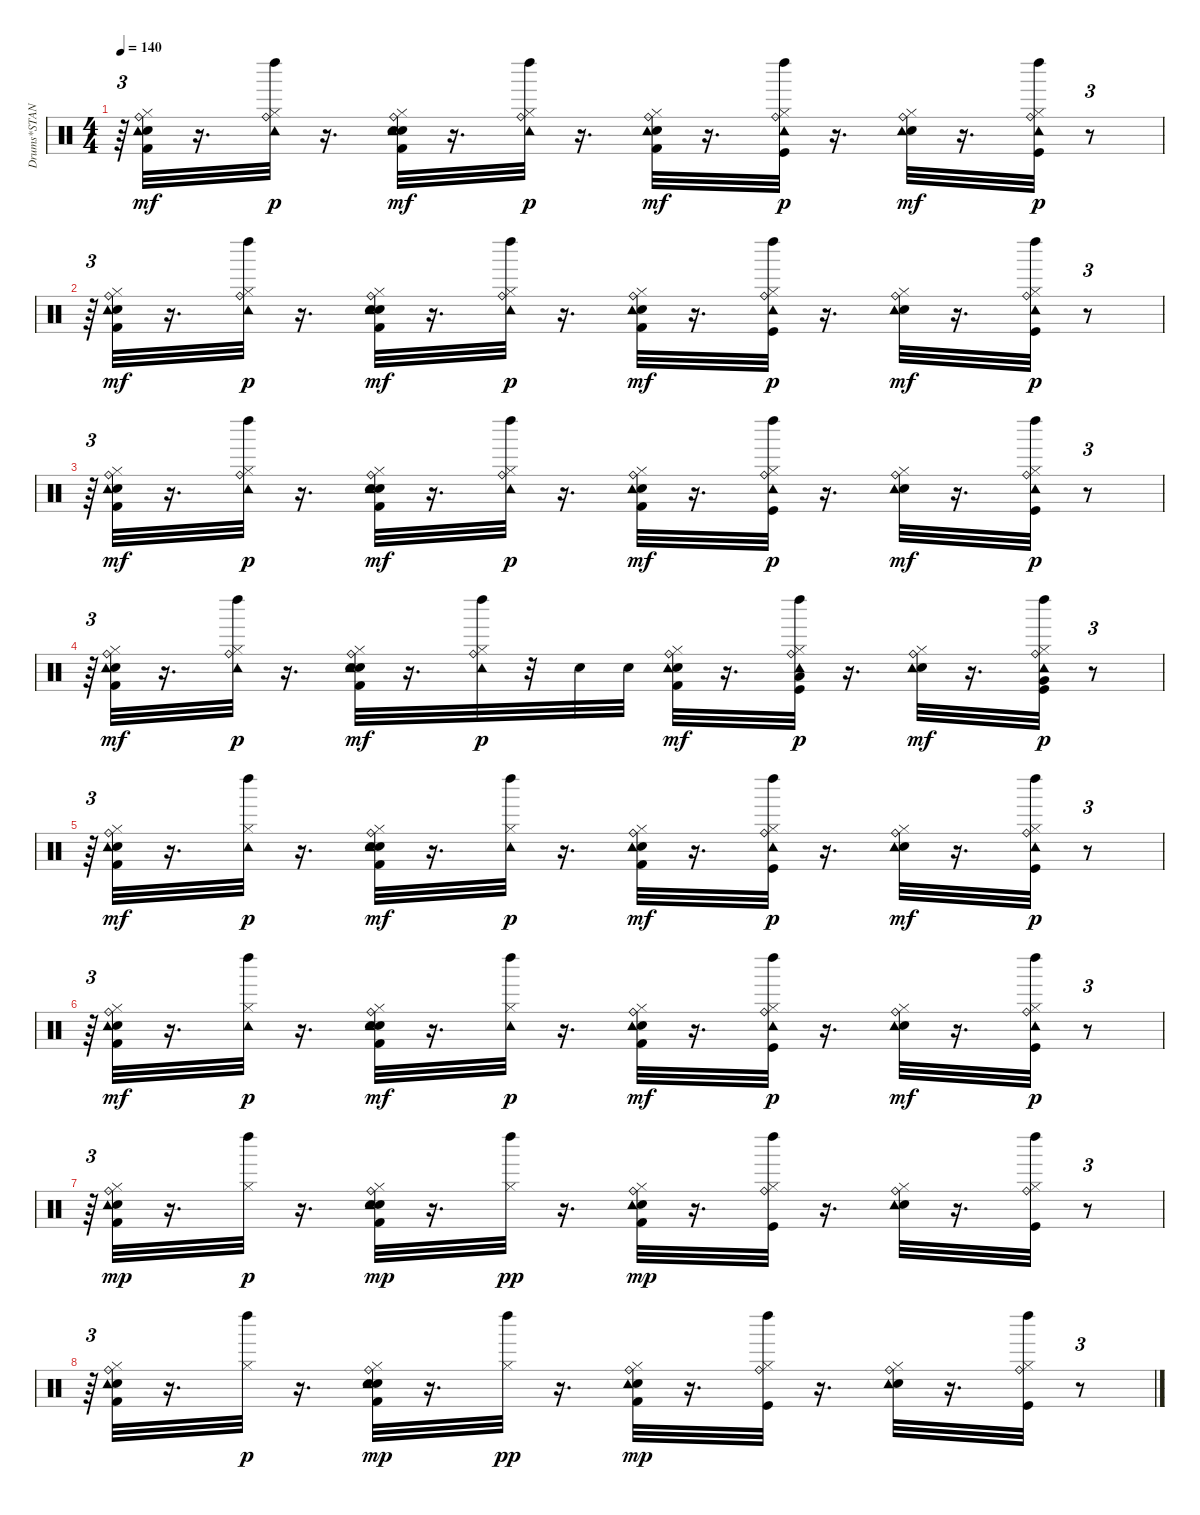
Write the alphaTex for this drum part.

\track ("Drums*STANDARD      " "Drums*STAN") {instrument percussion}
\staff {score}
\articulation defaults
\ts (4 4)
\tempo 140
\clef neutral
\ks c
r.64{tu (3 2) dy p} ("Kick (hit) 2" "Snare (hit) 2" "Hi-Hat (closed)" "Ride (bell)" "Tambourine (hit)").32{dy mf} r.16{d} ("Hi-Hat (closed)" "Left Maraca (hit)" "Ride (bell)" "Tambourine (hit)").32{dy p} r.16{d} ("Kick (hit) 2" "Snare (hit) 2" "Hi-Hat (closed)" "Hand Clap (hit)" "Ride (bell)" "Tambourine (hit)").32{dy mf} r.16{d} ("Hi-Hat (closed)" "Left Maraca (hit)" "Ride (bell)" "Tambourine (hit)").32{dy p} r.16{d} ("Kick (hit) 2" "Snare (hit) 2" "Hi-Hat (closed)" "Ride (bell)" "Tambourine (hit)").32{dy mf} r.16{d} ("Hi-Hat (closed)" "Left Maraca (hit)" "Kick (hit)" "Ride (bell)" "Tambourine (hit)").32{dy p} r.16{d} ("Snare (hit) 2" "Hi-Hat (closed)" "Ride (bell)" "Tambourine (hit)").32{dy mf} r.16{d} ("Hi-Hat (closed)" "Left Maraca (hit)" "Kick (hit)" "Ride (bell)" "Tambourine (hit)").32{dy p} r.8{tu (3 2)} |
r.64{tu (3 2)} ("Kick (hit) 2" "Snare (hit) 2" "Hi-Hat (closed)" "Ride (bell)" "Tambourine (hit)").32{dy mf} r.16{d} ("Hi-Hat (closed)" "Left Maraca (hit)" "Ride (bell)" "Tambourine (hit)").32{dy p} r.16{d} ("Kick (hit) 2" "Snare (hit) 2" "Hi-Hat (closed)" "Hand Clap (hit)" "Ride (bell)" "Tambourine (hit)").32{dy mf} r.16{d} ("Hi-Hat (closed)" "Left Maraca (hit)" "Ride (bell)" "Tambourine (hit)").32{dy p} r.16{d} ("Kick (hit) 2" "Snare (hit) 2" "Hi-Hat (closed)" "Ride (bell)" "Tambourine (hit)").32{dy mf} r.16{d} ("Hi-Hat (closed)" "Left Maraca (hit)" "Kick (hit)" "Ride (bell)" "Tambourine (hit)").32{dy p} r.16{d} ("Snare (hit) 2" "Hi-Hat (closed)" "Ride (bell)" "Tambourine (hit)").32{dy mf} r.16{d} ("Hi-Hat (closed)" "Left Maraca (hit)" "Kick (hit)" "Ride (bell)" "Tambourine (hit)").32{dy p} r.8{tu (3 2)} |
r.64{tu (3 2)} ("Kick (hit) 2" "Snare (hit) 2" "Hi-Hat (closed)" "Ride (bell)" "Tambourine (hit)").32{dy mf} r.16{d} ("Hi-Hat (closed)" "Left Maraca (hit)" "Ride (bell)" "Tambourine (hit)").32{dy p} r.16{d} ("Kick (hit) 2" "Snare (hit) 2" "Hi-Hat (closed)" "Hand Clap (hit)" "Ride (bell)" "Tambourine (hit)").32{dy mf} r.16{d} ("Hi-Hat (closed)" "Left Maraca (hit)" "Ride (bell)" "Tambourine (hit)").32{dy p} r.16{d} ("Kick (hit) 2" "Snare (hit) 2" "Hi-Hat (closed)" "Ride (bell)" "Tambourine (hit)").32{dy mf} r.16{d} ("Hi-Hat (closed)" "Left Maraca (hit)" "Kick (hit)" "Ride (bell)" "Tambourine (hit)").32{dy p} r.16{d} ("Snare (hit) 2" "Hi-Hat (closed)" "Ride (bell)" "Tambourine (hit)").32{dy mf} r.16{d} ("Hi-Hat (closed)" "Left Maraca (hit)" "Kick (hit)" "Ride (bell)" "Tambourine (hit)").32{dy p} r.8{tu (3 2)} |
r.64{tu (3 2)} ("Kick (hit) 2" "Snare (hit) 2" "Hi-Hat (closed)" "Ride (bell)" "Tambourine (hit)").32{dy mf} r.16{d} ("Hi-Hat (closed)" "Left Maraca (hit)" "Ride (bell)" "Tambourine (hit)").32{dy p} r.16{d} ("Kick (hit) 2" "Snare (hit) 2" "Hi-Hat (closed)" "Hand Clap (hit)" "Ride (bell)" "Tambourine (hit)").32{dy mf} r.16{d} ("Hi-Hat (closed)" "Left Maraca (hit)" "Ride (bell)" "Tambourine (hit)").32{dy p} r.32 "Electric Snare (hit)".32 "Electric Snare (hit)".32 ("Kick (hit) 2" "Snare (hit) 2" "Hi-Hat (closed)" "Ride (bell)" "Tambourine (hit)").32{dy mf} r.16{d} ("Hi-Hat (closed)" "Left Maraca (hit)" "Low Tom (hit)" "Kick (hit)" "Ride (bell)" "Tambourine (hit)").32{dy p} r.16{d} ("Snare (hit) 2" "Hi-Hat (closed)" "Ride (bell)" "Tambourine (hit)").32{dy mf} r.16{d} ("Hi-Hat (closed)" "Left Maraca (hit)" "Very Low Tom (hit)" "Kick (hit)" "Ride (bell)" "Tambourine (hit)").32{dy p} r.8{tu (3 2)} |
r.64{tu (3 2)} ("Kick (hit) 2" "Snare (hit) 2" "Hi-Hat (closed)" "Ride (bell)" "Tambourine (hit)").32{dy mf} r.16{d} ("Hi-Hat (closed)" "Left Maraca (hit)" "Tambourine (hit)").32{dy p} r.16{d} ("Kick (hit) 2" "Snare (hit) 2" "Hi-Hat (closed)" "Hand Clap (hit)" "Ride (bell)" "Tambourine (hit)").32{dy mf} r.16{d} ("Hi-Hat (closed)" "Left Maraca (hit)" "Tambourine (hit)").32{dy p} r.16{d} ("Kick (hit) 2" "Snare (hit) 2" "Hi-Hat (closed)" "Ride (bell)" "Tambourine (hit)").32{dy mf} r.16{d} ("Hi-Hat (closed)" "Left Maraca (hit)" "Kick (hit)" "Ride (bell)" "Tambourine (hit)").32{dy p} r.16{d} ("Snare (hit) 2" "Hi-Hat (closed)" "Ride (bell)" "Tambourine (hit)").32{dy mf} r.16{d} ("Hi-Hat (closed)" "Left Maraca (hit)" "Kick (hit)" "Ride (bell)" "Tambourine (hit)").32{dy p} r.8{tu (3 2)} |
r.64{tu (3 2)} ("Kick (hit) 2" "Snare (hit) 2" "Hi-Hat (closed)" "Ride (bell)" "Tambourine (hit)").32{dy mf} r.16{d} ("Hi-Hat (closed)" "Left Maraca (hit)" "Tambourine (hit)").32{dy p} r.16{d} ("Kick (hit) 2" "Snare (hit) 2" "Hi-Hat (closed)" "Hand Clap (hit)" "Ride (bell)" "Tambourine (hit)").32{dy mf} r.16{d} ("Hi-Hat (closed)" "Left Maraca (hit)" "Tambourine (hit)").32{dy p} r.16{d} ("Kick (hit) 2" "Snare (hit) 2" "Hi-Hat (closed)" "Ride (bell)" "Tambourine (hit)").32{dy mf} r.16{d} ("Hi-Hat (closed)" "Left Maraca (hit)" "Kick (hit)" "Ride (bell)" "Tambourine (hit)").32{dy p} r.16{d} ("Snare (hit) 2" "Hi-Hat (closed)" "Ride (bell)" "Tambourine (hit)").32{dy mf} r.16{d} ("Hi-Hat (closed)" "Left Maraca (hit)" "Kick (hit)" "Ride (bell)" "Tambourine (hit)").32{dy p} r.8{tu (3 2)} |
r.64{tu (3 2)} ("Kick (hit) 2" "Snare (hit) 2" "Hi-Hat (closed)" "Ride (bell)" "Tambourine (hit)").32{dy mp} r.16{d} ("Hi-Hat (closed)" "Left Maraca (hit)").32{dy p} r.16{d} ("Kick (hit) 2" "Snare (hit) 2" "Hi-Hat (closed)" "Hand Clap (hit)" "Ride (bell)" "Tambourine (hit)").32{dy mp} r.16{d} ("Hi-Hat (closed)" "Left Maraca (hit)").32{dy pp} r.16{d} ("Kick (hit) 2" "Snare (hit) 2" "Hi-Hat (closed)" "Ride (bell)" "Tambourine (hit)").32{dy mp} r.16{d} ("Hi-Hat (closed)" "Left Maraca (hit)" "Kick (hit)" "Ride (bell)").32 r.16{d} ("Snare (hit) 2" "Hi-Hat (closed)" "Ride (bell)" "Tambourine (hit)").32 r.16{d} ("Hi-Hat (closed)" "Left Maraca (hit)" "Kick (hit)" "Ride (bell)").32 r.8{tu (3 2)} |
r.64{tu (3 2)} ("Kick (hit) 2" "Snare (hit) 2" "Hi-Hat (closed)" "Ride (bell)" "Tambourine (hit)").32 r.16{d} ("Hi-Hat (closed)" "Left Maraca (hit)").32{dy p} r.16{d} ("Kick (hit) 2" "Snare (hit) 2" "Hi-Hat (closed)" "Hand Clap (hit)" "Ride (bell)" "Tambourine (hit)").32{dy mp} r.16{d} ("Hi-Hat (closed)" "Left Maraca (hit)").32{dy pp} r.16{d} ("Kick (hit) 2" "Snare (hit) 2" "Hi-Hat (closed)" "Ride (bell)" "Tambourine (hit)").32{dy mp} r.16{d} ("Hi-Hat (closed)" "Left Maraca (hit)" "Kick (hit)" "Ride (bell)").32 r.16{d} ("Snare (hit) 2" "Hi-Hat (closed)" "Ride (bell)" "Tambourine (hit)").32 r.16{d} ("Hi-Hat (closed)" "Left Maraca (hit)" "Kick (hit)" "Ride (bell)").32 r.8{tu (3 2)}
